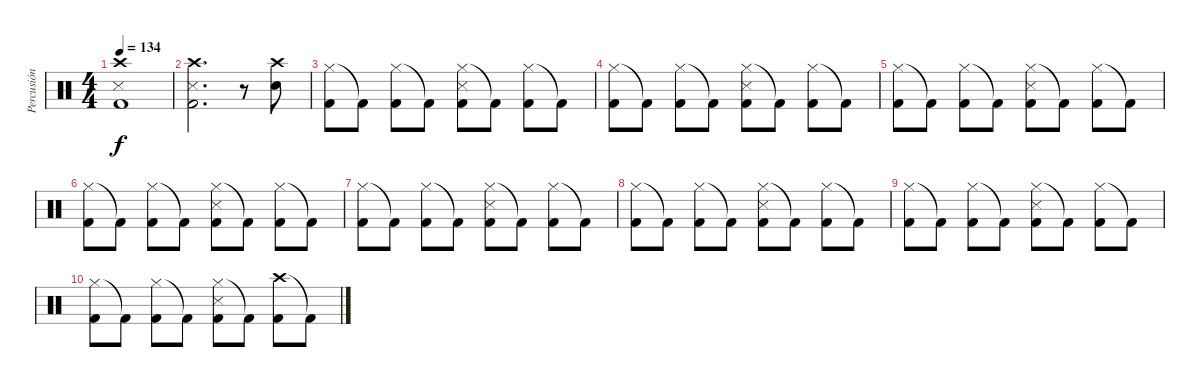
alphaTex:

\track ("Percusión" "Percusión") {instrument percussion}
\staff {score}
\articulation defaults
\ts (4 4)
\tempo 134
\clef neutral
\ks c
("Crash high (hit)" "Snare (side stick) 3" "Kick (hit) 2").1{dy f} |
("Crash high (hit)" "Snare (side stick) 3" "Kick (hit) 2").2{d} r.8 ("Crash high (hit)" "Electric Snare (hit)").8 |
("Hi-Hat (closed)" "Kick (hit) 2").8 "Kick (hit) 2"{t}.8 ("Hi-Hat (closed)" "Kick (hit) 2").8 "Kick (hit) 2"{t}.8 ("Hi-Hat (closed)" "Snare (side stick) 3" "Kick (hit) 2").8 "Kick (hit) 2"{t}.8 ("Hi-Hat (closed)" "Kick (hit) 2").8 "Kick (hit) 2"{t}.8 |
("Hi-Hat (closed)" "Kick (hit) 2").8 "Kick (hit) 2"{t}.8 ("Hi-Hat (closed)" "Kick (hit) 2").8 "Kick (hit) 2"{t}.8 ("Hi-Hat (closed)" "Snare (side stick) 3" "Kick (hit) 2").8 "Kick (hit) 2"{t}.8 ("Hi-Hat (closed)" "Kick (hit) 2").8 "Kick (hit) 2"{t}.8 |
("Hi-Hat (closed)" "Kick (hit) 2").8 "Kick (hit) 2"{t}.8 ("Hi-Hat (closed)" "Kick (hit) 2").8 "Kick (hit) 2"{t}.8 ("Hi-Hat (closed)" "Snare (side stick) 3" "Kick (hit) 2").8 "Kick (hit) 2"{t}.8 ("Hi-Hat (closed)" "Kick (hit) 2").8 "Kick (hit) 2"{t}.8 |
("Hi-Hat (closed)" "Kick (hit) 2").8 "Kick (hit) 2"{t}.8 ("Hi-Hat (closed)" "Kick (hit) 2").8 "Kick (hit) 2"{t}.8 ("Hi-Hat (closed)" "Snare (side stick) 3" "Kick (hit) 2").8 "Kick (hit) 2"{t}.8 ("Hi-Hat (closed)" "Kick (hit) 2").8 "Kick (hit) 2"{t}.8 |
("Hi-Hat (closed)" "Kick (hit) 2").8 "Kick (hit) 2"{t}.8 ("Hi-Hat (closed)" "Kick (hit) 2").8 "Kick (hit) 2"{t}.8 ("Hi-Hat (closed)" "Snare (side stick) 3" "Kick (hit) 2").8 "Kick (hit) 2"{t}.8 ("Hi-Hat (closed)" "Kick (hit) 2").8 "Kick (hit) 2"{t}.8 |
("Hi-Hat (closed)" "Kick (hit) 2").8 "Kick (hit) 2"{t}.8 ("Hi-Hat (closed)" "Kick (hit) 2").8 "Kick (hit) 2"{t}.8 ("Hi-Hat (closed)" "Snare (side stick) 3" "Kick (hit) 2").8 "Kick (hit) 2"{t}.8 ("Hi-Hat (closed)" "Kick (hit) 2").8 "Kick (hit) 2"{t}.8 |
("Hi-Hat (closed)" "Kick (hit) 2").8 "Kick (hit) 2"{t}.8 ("Hi-Hat (closed)" "Kick (hit) 2").8 "Kick (hit) 2"{t}.8 ("Hi-Hat (closed)" "Snare (side stick) 3" "Kick (hit) 2").8 "Kick (hit) 2"{t}.8 ("Hi-Hat (closed)" "Kick (hit) 2").8 "Kick (hit) 2"{t}.8 |
("Hi-Hat (closed)" "Kick (hit) 2").8 "Kick (hit) 2"{t}.8 ("Hi-Hat (closed)" "Kick (hit) 2").8 "Kick (hit) 2"{t}.8 ("Hi-Hat (closed)" "Snare (side stick) 3" "Kick (hit) 2").8 "Kick (hit) 2"{t}.8 ("Crash high (hit)" "Kick (hit) 2").8 "Kick (hit) 2"{t}.8
